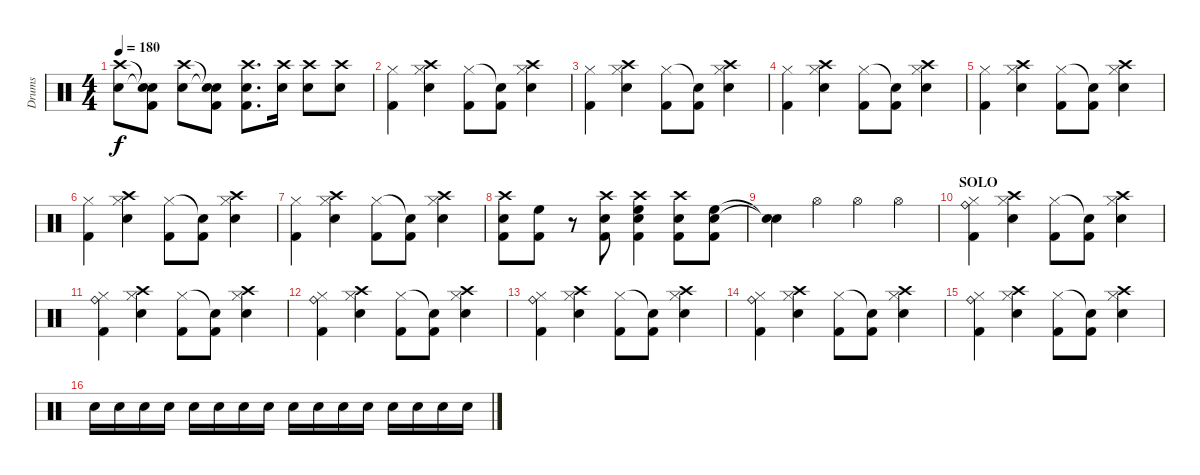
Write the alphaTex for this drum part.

\track ("Drums" "Drums") {instrument percussion}
\staff {score}
\articulation defaults
\ts (4 4)
\tempo 180
\clef neutral
\ks c
("Crash high (hit)" "Snare (hit) 2").8{dy f} ("Snare (hit)"{t} "Snare (hit)"{t} "Kick (hit) 2").8 ("Crash high (hit)" "Snare (hit) 2").8 ("Snare (hit)"{t} "Snare (hit)"{t} "Kick (hit) 2").8 ("Crash high (hit)" "Snare (hit) 2" "Kick (hit) 2").8{d} ("Crash high (hit)" "Snare (hit) 2").16 ("Crash high (hit)" "Snare (hit) 2").8 ("Crash high (hit)" "Snare (hit) 2").8 |
("Hi-Hat (closed)" "Kick (hit) 2").4 ("Crash high (hit)" "Hi-Hat (closed)" "Snare (hit) 2").4 ("Hi-Hat (closed)" "Kick (hit) 2").8 ("Snare (hit)"{t} "Kick (hit) 2").8 ("Crash high (hit)" "Hi-Hat (closed)" "Snare (hit) 2").4 |
("Hi-Hat (closed)" "Kick (hit) 2").4 ("Crash high (hit)" "Hi-Hat (closed)" "Snare (hit) 2").4 ("Hi-Hat (closed)" "Kick (hit) 2").8 ("Snare (hit)"{t} "Kick (hit) 2").8 ("Crash high (hit)" "Hi-Hat (closed)" "Snare (hit) 2").4 |
("Hi-Hat (closed)" "Kick (hit) 2").4 ("Crash high (hit)" "Hi-Hat (closed)" "Snare (hit) 2").4 ("Hi-Hat (closed)" "Kick (hit) 2").8 ("Snare (hit)"{t} "Kick (hit) 2").8 ("Crash high (hit)" "Hi-Hat (closed)" "Snare (hit) 2").4 |
("Hi-Hat (closed)" "Kick (hit) 2").4 ("Crash high (hit)" "Hi-Hat (closed)" "Snare (hit) 2").4 ("Hi-Hat (closed)" "Kick (hit) 2").8 ("Snare (hit)"{t} "Kick (hit) 2").8 ("Crash high (hit)" "Hi-Hat (closed)" "Snare (hit) 2").4 |
("Hi-Hat (closed)" "Kick (hit) 2").4 ("Crash high (hit)" "Hi-Hat (closed)" "Snare (hit) 2").4 ("Hi-Hat (closed)" "Kick (hit) 2").8 ("Snare (hit)"{t} "Kick (hit) 2").8 ("Crash high (hit)" "Hi-Hat (closed)" "Snare (hit) 2").4 |
("Hi-Hat (closed)" "Kick (hit) 2").4 ("Crash high (hit)" "Hi-Hat (closed)" "Snare (hit) 2").4 ("Hi-Hat (closed)" "Kick (hit) 2").8 ("Snare (hit)"{t} "Kick (hit) 2").8 ("Crash high (hit)" "Hi-Hat (closed)" "Snare (hit) 2").4 |
("Crash high (hit)" "Snare (hit) 2" "Kick (hit) 2").8 ("High Floor Tom (hit)" "Kick (hit) 2").8 r.8 ("Crash high (hit)" "Snare (hit) 2" "Kick (hit) 2").8 ("Crash high (hit)" "High Floor Tom (hit)" "Snare (hit) 2" "Kick (hit) 2").4 ("Crash high (hit)" "Snare (hit) 2" "Kick (hit) 2").8 ("High Floor Tom (hit)" "Snare (hit) 2" "Kick (hit) 2").8 |
("Snare (hit)"{t} "Snare (hit)"{t}).4 "Hi-Hat (open)".4 "Hi-Hat (open)".4 "Hi-Hat (open)".4 |
\section ("" "SOLO")
("Ride (bell)" "Hi-Hat (closed)" "Kick (hit) 2").4 ("Crash high (hit)" "Hi-Hat (closed)" "Snare (hit) 2").4 ("Hi-Hat (closed)" "Kick (hit) 2").8 ("Snare (hit)"{t} "Kick (hit) 2").8 ("Crash high (hit)" "Hi-Hat (closed)" "Snare (hit) 2").4 |
("Ride (bell)" "Hi-Hat (closed)" "Kick (hit) 2").4 ("Crash high (hit)" "Hi-Hat (closed)" "Snare (hit) 2").4 ("Hi-Hat (closed)" "Kick (hit) 2").8 ("Snare (hit)"{t} "Kick (hit) 2").8 ("Crash high (hit)" "Hi-Hat (closed)" "Snare (hit) 2").4 |
("Ride (bell)" "Hi-Hat (closed)" "Kick (hit) 2").4 ("Crash high (hit)" "Hi-Hat (closed)" "Snare (hit) 2").4 ("Hi-Hat (closed)" "Kick (hit) 2").8 ("Snare (hit)"{t} "Kick (hit) 2").8 ("Crash high (hit)" "Hi-Hat (closed)" "Snare (hit) 2").4 |
("Ride (bell)" "Hi-Hat (closed)" "Kick (hit) 2").4 ("Crash high (hit)" "Hi-Hat (closed)" "Snare (hit) 2").4 ("Hi-Hat (closed)" "Kick (hit) 2").8 ("Snare (hit)"{t} "Kick (hit) 2").8 ("Crash high (hit)" "Hi-Hat (closed)" "Snare (hit) 2").4 |
("Ride (bell)" "Hi-Hat (closed)" "Kick (hit) 2").4 ("Crash high (hit)" "Hi-Hat (closed)" "Snare (hit) 2").4 ("Hi-Hat (closed)" "Kick (hit) 2").8 ("Snare (hit)"{t} "Kick (hit) 2").8 ("Crash high (hit)" "Hi-Hat (closed)" "Snare (hit) 2").4 |
("Ride (bell)" "Hi-Hat (closed)" "Kick (hit) 2").4 ("Crash high (hit)" "Hi-Hat (closed)" "Snare (hit) 2").4 ("Hi-Hat (closed)" "Kick (hit) 2").8 ("Snare (hit)"{t} "Kick (hit) 2").8 ("Crash high (hit)" "Hi-Hat (closed)" "Snare (hit) 2").4 |
"Snare (hit) 2".16 "Snare (hit) 2".16 "Snare (hit) 2".16 "Snare (hit) 2".16 "Snare (hit) 2".16 "Snare (hit) 2".16 "Snare (hit) 2".16 "Snare (hit) 2".16 "Snare (hit) 2".16 "Snare (hit) 2".16 "Snare (hit) 2".16 "Snare (hit) 2".16 "Snare (hit) 2".16 "Snare (hit) 2".16 "Snare (hit) 2".16 "Snare (hit) 2".16
